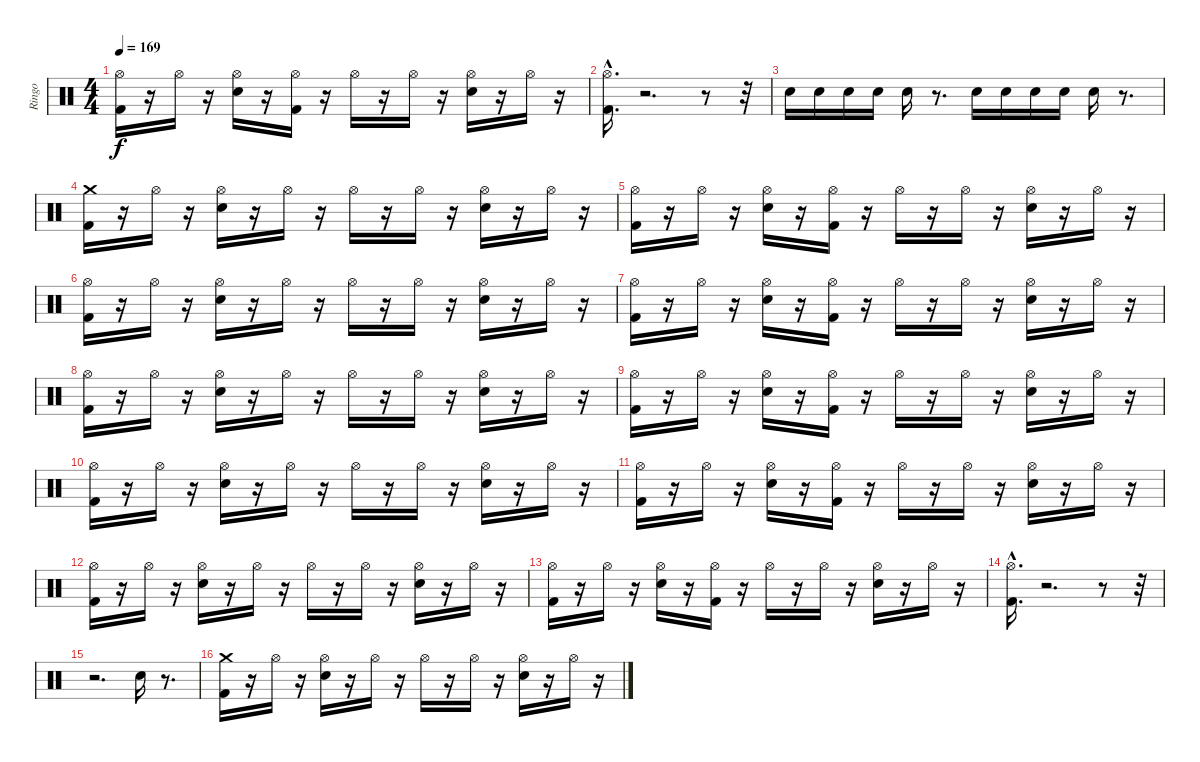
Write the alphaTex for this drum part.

\track ("Ringo" "Ringo") {instrument percussion}
\staff {score}
\articulation defaults
\ts (4 4)
\tempo 169
\clef neutral
\ks c
("Kick (hit) 2" "Hi-Hat (open)").16{dy f} r.16 "Hi-Hat (open)".16 r.16 ("Snare (hit) 2" "Hi-Hat (open)").16 r.16 ("Kick (hit) 2" "Hi-Hat (open)").16 r.16 "Hi-Hat (open)".16 r.16 "Hi-Hat (open)".16 r.16 ("Snare (hit) 2" "Hi-Hat (open)").16 r.16 "Hi-Hat (open)".16 r.16 |
("Hi-Hat (open)"{hac} "Kick (hit) 2"{hac}).16{d} r.2{d} r.8 r.32 |
"Snare (hit) 2".16 "Snare (hit) 2".16 "Snare (hit) 2".16 "Snare (hit) 2".16 "Snare (hit) 2".16 r.8{d} "Snare (hit) 2".16 "Snare (hit) 2".16 "Snare (hit) 2".16 "Snare (hit) 2".16 "Snare (hit) 2".16 r.8{d} |
("Kick (hit) 2" "Crash medium (hit)").16 r.16 "Hi-Hat (open)".16 r.16 ("Snare (hit) 2" "Hi-Hat (open)").16 r.16 "Hi-Hat (open)".16 r.16 "Hi-Hat (open)".16 r.16 "Hi-Hat (open)".16 r.16 ("Snare (hit) 2" "Hi-Hat (open)").16 r.16 "Hi-Hat (open)".16 r.16 |
("Kick (hit) 2" "Hi-Hat (open)").16 r.16 "Hi-Hat (open)".16 r.16 ("Snare (hit) 2" "Hi-Hat (open)").16 r.16 ("Kick (hit) 2" "Hi-Hat (open)").16 r.16 "Hi-Hat (open)".16 r.16 "Hi-Hat (open)".16 r.16 ("Snare (hit) 2" "Hi-Hat (open)").16 r.16 "Hi-Hat (open)".16 r.16 |
("Kick (hit) 2" "Hi-Hat (open)").16 r.16 "Hi-Hat (open)".16 r.16 ("Snare (hit) 2" "Hi-Hat (open)").16 r.16 "Hi-Hat (open)".16 r.16 "Hi-Hat (open)".16 r.16 "Hi-Hat (open)".16 r.16 ("Snare (hit) 2" "Hi-Hat (open)").16 r.16 "Hi-Hat (open)".16 r.16 |
("Kick (hit) 2" "Hi-Hat (open)").16 r.16 "Hi-Hat (open)".16 r.16 ("Snare (hit) 2" "Hi-Hat (open)").16 r.16 ("Kick (hit) 2" "Hi-Hat (open)").16 r.16 "Hi-Hat (open)".16 r.16 "Hi-Hat (open)".16 r.16 ("Snare (hit) 2" "Hi-Hat (open)").16 r.16 "Hi-Hat (open)".16 r.16 |
("Kick (hit) 2" "Hi-Hat (open)").16 r.16 "Hi-Hat (open)".16 r.16 ("Snare (hit) 2" "Hi-Hat (open)").16 r.16 "Hi-Hat (open)".16 r.16 "Hi-Hat (open)".16 r.16 "Hi-Hat (open)".16 r.16 ("Snare (hit) 2" "Hi-Hat (open)").16 r.16 "Hi-Hat (open)".16 r.16 |
("Kick (hit) 2" "Hi-Hat (open)").16 r.16 "Hi-Hat (open)".16 r.16 ("Snare (hit) 2" "Hi-Hat (open)").16 r.16 ("Kick (hit) 2" "Hi-Hat (open)").16 r.16 "Hi-Hat (open)".16 r.16 "Hi-Hat (open)".16 r.16 ("Snare (hit) 2" "Hi-Hat (open)").16 r.16 "Hi-Hat (open)".16 r.16 |
("Kick (hit) 2" "Hi-Hat (open)").16 r.16 "Hi-Hat (open)".16 r.16 ("Snare (hit) 2" "Hi-Hat (open)").16 r.16 "Hi-Hat (open)".16 r.16 "Hi-Hat (open)".16 r.16 "Hi-Hat (open)".16 r.16 ("Snare (hit) 2" "Hi-Hat (open)").16 r.16 "Hi-Hat (open)".16 r.16 |
("Kick (hit) 2" "Hi-Hat (open)").16 r.16 "Hi-Hat (open)".16 r.16 ("Snare (hit) 2" "Hi-Hat (open)").16 r.16 ("Kick (hit) 2" "Hi-Hat (open)").16 r.16 "Hi-Hat (open)".16 r.16 "Hi-Hat (open)".16 r.16 ("Snare (hit) 2" "Hi-Hat (open)").16 r.16 "Hi-Hat (open)".16 r.16 |
("Kick (hit) 2" "Hi-Hat (open)").16 r.16 "Hi-Hat (open)".16 r.16 ("Snare (hit) 2" "Hi-Hat (open)").16 r.16 "Hi-Hat (open)".16 r.16 "Hi-Hat (open)".16 r.16 "Hi-Hat (open)".16 r.16 ("Snare (hit) 2" "Hi-Hat (open)").16 r.16 "Hi-Hat (open)".16 r.16 |
("Kick (hit) 2" "Hi-Hat (open)").16 r.16 "Hi-Hat (open)".16 r.16 ("Snare (hit) 2" "Hi-Hat (open)").16 r.16 ("Kick (hit) 2" "Hi-Hat (open)").16 r.16 "Hi-Hat (open)".16 r.16 "Hi-Hat (open)".16 r.16 ("Snare (hit) 2" "Hi-Hat (open)").16 r.16 "Hi-Hat (open)".16 r.16 |
("Hi-Hat (open)"{hac} "Kick (hit) 2"{hac}).16{d} r.2{d} r.8 r.32 |
r.2{d} "Snare (hit) 2".16 r.8{d} |
("Kick (hit) 2" "Crash medium (hit)").16 r.16 "Hi-Hat (open)".16 r.16 ("Snare (hit) 2" "Hi-Hat (open)").16 r.16 "Hi-Hat (open)".16 r.16 "Hi-Hat (open)".16 r.16 "Hi-Hat (open)".16 r.16 ("Snare (hit) 2" "Hi-Hat (open)").16 r.16 "Hi-Hat (open)".16 r.16
